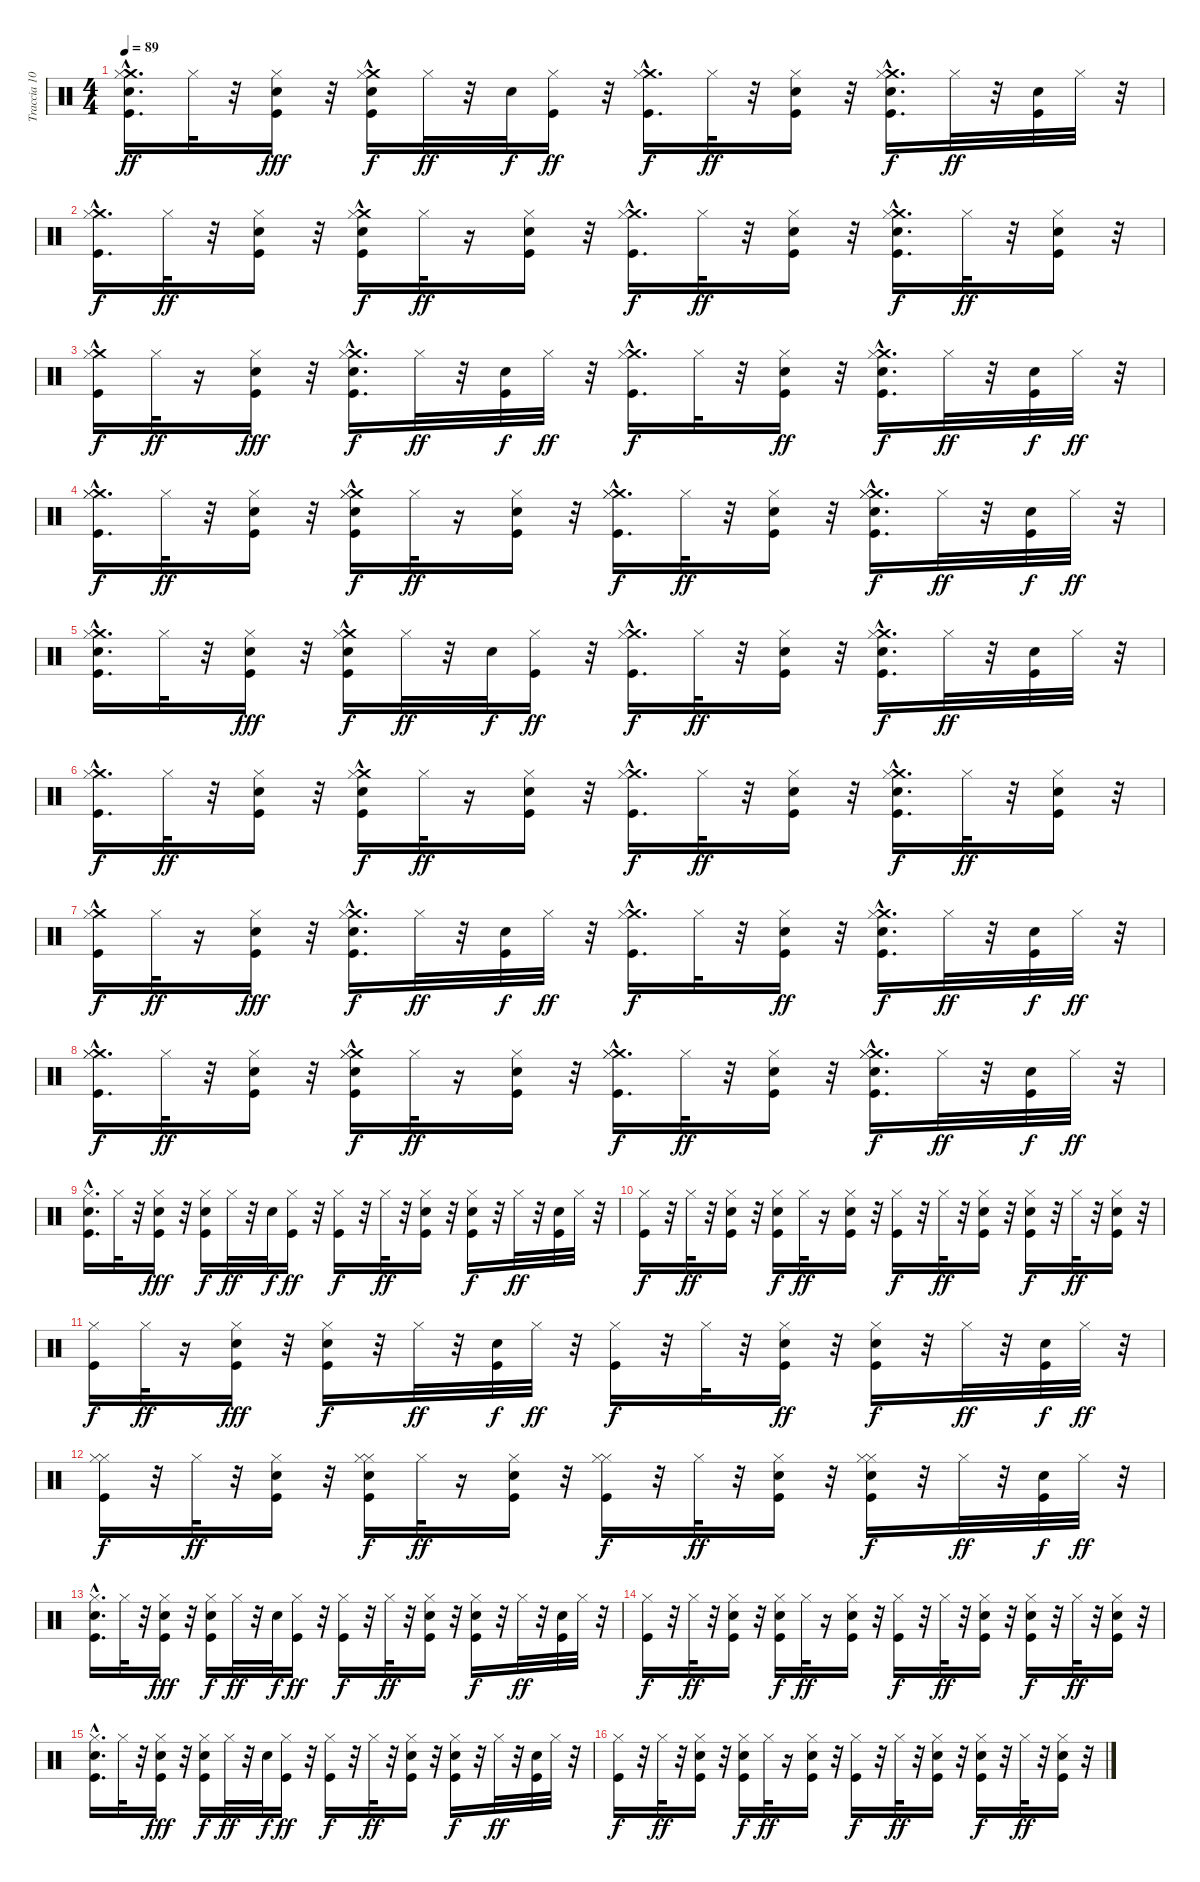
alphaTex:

\track ("Traccia 10" "Traccia 10") {instrument percussion}
\staff {score}
\articulation defaults
\ts (4 4)
\tempo 89
\clef neutral
\ks c
("Kick (hit)" "Crash medium (hit)"{hac} "Hi-Hat (closed)" "Snare (hit)"{hac}).16{d dy ff} "Hi-Hat (closed)".32 r.32 ("Kick (hit)" "Hi-Hat (closed)" "Snare (hit)").16{dy fff} r.32 ("Kick (hit)" "Crash medium (hit)"{hac} "Electric Snare (hit)" "Hi-Hat (closed)").16{dy f} "Hi-Hat (closed)".32{dy ff} r.32 "Snare (hit)".32{dy f} ("Kick (hit)" "Hi-Hat (closed)").16{dy ff} r.32 ("Kick (hit)" "Crash medium (hit)"{hac} "Hi-Hat (closed)").16{d dy f} "Hi-Hat (closed)".32{dy ff} r.32 ("Kick (hit)" "Snare (hit)" "Hi-Hat (closed)").16 r.32 ("Kick (hit)" "Crash medium (hit)"{hac} "Electric Snare (hit)" "Hi-Hat (closed)").16{d dy f} "Hi-Hat (closed)".32{dy ff} r.32 ("Kick (hit)" "Snare (hit)").32 "Hi-Hat (closed)".32 r.32 |
("Kick (hit)" "Crash medium (hit)"{hac} "Hi-Hat (closed)").16{d dy f} "Hi-Hat (closed)".32{dy ff} r.32 ("Kick (hit)" "Snare (hit)" "Hi-Hat (closed)").16 r.32 ("Kick (hit)" "Crash medium (hit)"{hac} "Electric Snare (hit)" "Hi-Hat (closed)").16{dy f} "Hi-Hat (closed)".32{dy ff} r.16 ("Kick (hit)" "Hi-Hat (closed)" "Snare (hit)").16 r.32 ("Kick (hit)" "Crash medium (hit)"{hac} "Hi-Hat (closed)").16{d dy f} "Hi-Hat (closed)".32{dy ff} r.32 ("Snare (hit)" "Kick (hit)" "Hi-Hat (closed)").16 r.32 ("Kick (hit)" "Crash medium (hit)"{hac} "Electric Snare (hit)" "Hi-Hat (closed)").16{d dy f} "Hi-Hat (closed)".32{dy ff} r.32 ("Kick (hit)" "Snare (hit)" "Hi-Hat (closed)").16 r.32 |
("Kick (hit)" "Crash medium (hit)"{hac} "Hi-Hat (closed)").16{dy f} "Hi-Hat (closed)".32{dy ff} r.16 ("Kick (hit)" "Snare (hit)" "Hi-Hat (closed)").16{dy fff} r.32 ("Kick (hit)" "Crash medium (hit)"{hac} "Electric Snare (hit)" "Hi-Hat (closed)").16{d dy f} "Hi-Hat (closed)".32{dy ff} r.32 ("Kick (hit)" "Snare (hit)").32{dy f} "Hi-Hat (closed)".32{dy ff} r.32 ("Kick (hit)" "Crash medium (hit)"{hac} "Hi-Hat (closed)").16{d dy f} "Hi-Hat (closed)".32 r.32 ("Kick (hit)" "Snare (hit)" "Hi-Hat (closed)").16{dy ff} r.32 ("Kick (hit)" "Crash medium (hit)"{hac} "Electric Snare (hit)" "Hi-Hat (closed)").16{d dy f} "Hi-Hat (closed)".32{dy ff} r.32 ("Kick (hit)" "Snare (hit)").32{dy f} "Hi-Hat (closed)".32{dy ff} r.32 |
("Kick (hit)" "Crash medium (hit)"{hac} "Hi-Hat (closed)" "Hi-Hat (closed)").16{d dy f} "Hi-Hat (closed)".32{dy ff} r.32 ("Snare (hit)" "Kick (hit)" "Hi-Hat (closed)").16 r.32 ("Kick (hit)" "Crash medium (hit)"{hac} "Electric Snare (hit)" "Hi-Hat (closed)" "Hi-Hat (closed)").16{dy f} "Hi-Hat (closed)".32{dy ff} r.16 ("Snare (hit)" "Kick (hit)" "Hi-Hat (closed)").16 r.32 ("Kick (hit)" "Crash medium (hit)"{hac} "Hi-Hat (closed)" "Hi-Hat (closed)").16{d dy f} "Hi-Hat (closed)".32{dy ff} r.32 ("Snare (hit)" "Kick (hit)" "Hi-Hat (closed)").16 r.32 ("Kick (hit)" "Crash medium (hit)"{hac} "Electric Snare (hit)" "Hi-Hat (closed)" "Hi-Hat (closed)").16{d dy f} "Hi-Hat (closed)".32{dy ff} r.32 ("Kick (hit)" "Snare (hit)").32{dy f} "Hi-Hat (closed)".32{dy ff} r.32 |
("Kick (hit)" "Crash medium (hit)"{hac} "Hi-Hat (closed)" "Snare (hit)"{hac}).16{d} "Hi-Hat (closed)".32 r.32 ("Kick (hit)" "Hi-Hat (closed)" "Snare (hit)").16{dy fff} r.32 ("Kick (hit)" "Crash medium (hit)"{hac} "Electric Snare (hit)" "Hi-Hat (closed)").16{dy f} "Hi-Hat (closed)".32{dy ff} r.32 "Snare (hit)".32{dy f} ("Kick (hit)" "Hi-Hat (closed)").16{dy ff} r.32 ("Kick (hit)" "Crash medium (hit)"{hac} "Hi-Hat (closed)").16{d dy f} "Hi-Hat (closed)".32{dy ff} r.32 ("Kick (hit)" "Snare (hit)" "Hi-Hat (closed)").16 r.32 ("Kick (hit)" "Crash medium (hit)"{hac} "Electric Snare (hit)" "Hi-Hat (closed)").16{d dy f} "Hi-Hat (closed)".32{dy ff} r.32 ("Kick (hit)" "Snare (hit)").32 "Hi-Hat (closed)".32 r.32 |
("Kick (hit)" "Crash medium (hit)"{hac} "Hi-Hat (closed)").16{d dy f} "Hi-Hat (closed)".32{dy ff} r.32 ("Kick (hit)" "Snare (hit)" "Hi-Hat (closed)").16 r.32 ("Kick (hit)" "Crash medium (hit)"{hac} "Electric Snare (hit)" "Hi-Hat (closed)").16{dy f} "Hi-Hat (closed)".32{dy ff} r.16 ("Kick (hit)" "Hi-Hat (closed)" "Snare (hit)").16 r.32 ("Kick (hit)" "Crash medium (hit)"{hac} "Hi-Hat (closed)").16{d dy f} "Hi-Hat (closed)".32{dy ff} r.32 ("Snare (hit)" "Kick (hit)" "Hi-Hat (closed)").16 r.32 ("Kick (hit)" "Crash medium (hit)"{hac} "Electric Snare (hit)" "Hi-Hat (closed)").16{d dy f} "Hi-Hat (closed)".32{dy ff} r.32 ("Kick (hit)" "Snare (hit)" "Hi-Hat (closed)").16 r.32 |
("Kick (hit)" "Crash medium (hit)"{hac} "Hi-Hat (closed)").16{dy f} "Hi-Hat (closed)".32{dy ff} r.16 ("Kick (hit)" "Snare (hit)" "Hi-Hat (closed)").16{dy fff} r.32 ("Kick (hit)" "Crash medium (hit)"{hac} "Electric Snare (hit)" "Hi-Hat (closed)").16{d dy f} "Hi-Hat (closed)".32{dy ff} r.32 ("Kick (hit)" "Snare (hit)").32{dy f} "Hi-Hat (closed)".32{dy ff} r.32 ("Kick (hit)" "Crash medium (hit)"{hac} "Hi-Hat (closed)").16{d dy f} "Hi-Hat (closed)".32 r.32 ("Kick (hit)" "Snare (hit)" "Hi-Hat (closed)").16{dy ff} r.32 ("Kick (hit)" "Crash medium (hit)"{hac} "Electric Snare (hit)" "Hi-Hat (closed)").16{d dy f} "Hi-Hat (closed)".32{dy ff} r.32 ("Kick (hit)" "Snare (hit)").32{dy f} "Hi-Hat (closed)".32{dy ff} r.32 |
("Kick (hit)" "Crash medium (hit)"{hac} "Hi-Hat (closed)" "Hi-Hat (closed)").16{d dy f} "Hi-Hat (closed)".32{dy ff} r.32 ("Snare (hit)" "Kick (hit)" "Hi-Hat (closed)").16 r.32 ("Kick (hit)" "Crash medium (hit)"{hac} "Electric Snare (hit)" "Hi-Hat (closed)" "Hi-Hat (closed)").16{dy f} "Hi-Hat (closed)".32{dy ff} r.16 ("Snare (hit)" "Kick (hit)" "Hi-Hat (closed)").16 r.32 ("Kick (hit)" "Crash medium (hit)"{hac} "Hi-Hat (closed)" "Hi-Hat (closed)").16{d dy f} "Hi-Hat (closed)".32{dy ff} r.32 ("Snare (hit)" "Kick (hit)" "Hi-Hat (closed)").16 r.32 ("Kick (hit)" "Crash medium (hit)"{hac} "Electric Snare (hit)" "Hi-Hat (closed)" "Hi-Hat (closed)").16{d dy f} "Hi-Hat (closed)".32{dy ff} r.32 ("Kick (hit)" "Snare (hit)").32{dy f} "Hi-Hat (closed)".32{dy ff} r.32 |
("Kick (hit)" "Hi-Hat (closed)" "Snare (hit)"{hac}).16{d} "Hi-Hat (closed)".32 r.32 ("Kick (hit)" "Hi-Hat (closed)" "Snare (hit)").16{dy fff} r.32 ("Kick (hit)" "Electric Snare (hit)" "Hi-Hat (closed)").16{dy f} "Hi-Hat (closed)".32{dy ff} r.32 "Snare (hit)".32{dy f} ("Kick (hit)" "Hi-Hat (closed)").16{dy ff} r.32 ("Kick (hit)" "Hi-Hat (closed)").16{dy f} r.32 "Hi-Hat (closed)".32{dy ff} r.32 ("Kick (hit)" "Snare (hit)" "Hi-Hat (closed)").16 r.32 ("Kick (hit)" "Electric Snare (hit)" "Hi-Hat (closed)").16{dy f} r.32 "Hi-Hat (closed)".32{dy ff} r.32 ("Kick (hit)" "Snare (hit)").32 "Hi-Hat (closed)".32 r.32 |
("Kick (hit)" "Hi-Hat (closed)").16{dy f} r.32 "Hi-Hat (closed)".32{dy ff} r.32 ("Kick (hit)" "Snare (hit)" "Hi-Hat (closed)").16 r.32 ("Kick (hit)" "Electric Snare (hit)" "Hi-Hat (closed)").16{dy f} "Hi-Hat (closed)".32{dy ff} r.16 ("Kick (hit)" "Hi-Hat (closed)" "Snare (hit)").16 r.32 ("Kick (hit)" "Hi-Hat (closed)").16{dy f} r.32 "Hi-Hat (closed)".32{dy ff} r.32 ("Snare (hit)" "Kick (hit)" "Hi-Hat (closed)").16 r.32 ("Kick (hit)" "Electric Snare (hit)" "Hi-Hat (closed)").16{dy f} r.32 "Hi-Hat (closed)".32{dy ff} r.32 ("Kick (hit)" "Snare (hit)" "Hi-Hat (closed)").16 r.32 |
("Kick (hit)" "Hi-Hat (closed)").16{dy f} "Hi-Hat (closed)".32{dy ff} r.16 ("Kick (hit)" "Snare (hit)" "Hi-Hat (closed)").16{dy fff} r.32 ("Kick (hit)" "Electric Snare (hit)" "Hi-Hat (closed)").16{dy f} r.32 "Hi-Hat (closed)".32{dy ff} r.32 ("Kick (hit)" "Snare (hit)").32{dy f} "Hi-Hat (closed)".32{dy ff} r.32 ("Kick (hit)" "Hi-Hat (closed)").16{dy f} r.32 "Hi-Hat (closed)".32 r.32 ("Kick (hit)" "Snare (hit)" "Hi-Hat (closed)").16{dy ff} r.32 ("Kick (hit)" "Electric Snare (hit)" "Hi-Hat (closed)").16{dy f} r.32 "Hi-Hat (closed)".32{dy ff} r.32 ("Kick (hit)" "Snare (hit)").32{dy f} "Hi-Hat (closed)".32{dy ff} r.32 |
("Kick (hit)" "Hi-Hat (closed)" "Hi-Hat (closed)").16{dy f} r.32 "Hi-Hat (closed)".32{dy ff} r.32 ("Snare (hit)" "Kick (hit)" "Hi-Hat (closed)").16 r.32 ("Kick (hit)" "Electric Snare (hit)" "Hi-Hat (closed)" "Hi-Hat (closed)").16{dy f} "Hi-Hat (closed)".32{dy ff} r.16 ("Snare (hit)" "Kick (hit)" "Hi-Hat (closed)").16 r.32 ("Kick (hit)" "Hi-Hat (closed)" "Hi-Hat (closed)").16{dy f} r.32 "Hi-Hat (closed)".32{dy ff} r.32 ("Snare (hit)" "Kick (hit)" "Hi-Hat (closed)").16 r.32 ("Kick (hit)" "Electric Snare (hit)" "Hi-Hat (closed)" "Hi-Hat (closed)").16{dy f} r.32 "Hi-Hat (closed)".32{dy ff} r.32 ("Kick (hit)" "Snare (hit)").32{dy f} "Hi-Hat (closed)".32{dy ff} r.32 |
("Kick (hit)" "Hi-Hat (closed)" "Snare (hit)"{hac}).16{d} "Hi-Hat (closed)".32 r.32 ("Kick (hit)" "Hi-Hat (closed)" "Snare (hit)").16{dy fff} r.32 ("Kick (hit)" "Electric Snare (hit)" "Hi-Hat (closed)").16{dy f} "Hi-Hat (closed)".32{dy ff} r.32 "Snare (hit)".32{dy f} ("Kick (hit)" "Hi-Hat (closed)").16{dy ff} r.32 ("Kick (hit)" "Hi-Hat (closed)").16{dy f} r.32 "Hi-Hat (closed)".32{dy ff} r.32 ("Kick (hit)" "Snare (hit)" "Hi-Hat (closed)").16 r.32 ("Kick (hit)" "Electric Snare (hit)" "Hi-Hat (closed)").16{dy f} r.32 "Hi-Hat (closed)".32{dy ff} r.32 ("Kick (hit)" "Snare (hit)").32 "Hi-Hat (closed)".32 r.32 |
("Kick (hit)" "Hi-Hat (closed)").16{dy f} r.32 "Hi-Hat (closed)".32{dy ff} r.32 ("Kick (hit)" "Snare (hit)" "Hi-Hat (closed)").16 r.32 ("Kick (hit)" "Electric Snare (hit)" "Hi-Hat (closed)").16{dy f} "Hi-Hat (closed)".32{dy ff} r.16 ("Kick (hit)" "Hi-Hat (closed)" "Snare (hit)").16 r.32 ("Kick (hit)" "Hi-Hat (closed)").16{dy f} r.32 "Hi-Hat (closed)".32{dy ff} r.32 ("Snare (hit)" "Kick (hit)" "Hi-Hat (closed)").16 r.32 ("Kick (hit)" "Electric Snare (hit)" "Hi-Hat (closed)").16{dy f} r.32 "Hi-Hat (closed)".32{dy ff} r.32 ("Kick (hit)" "Snare (hit)" "Hi-Hat (closed)").16 r.32 |
("Kick (hit)" "Hi-Hat (closed)" "Snare (hit)"{hac}).16{d} "Hi-Hat (closed)".32 r.32 ("Kick (hit)" "Hi-Hat (closed)" "Snare (hit)").16{dy fff} r.32 ("Kick (hit)" "Electric Snare (hit)" "Hi-Hat (closed)").16{dy f} "Hi-Hat (closed)".32{dy ff} r.32 "Snare (hit)".32{dy f} ("Kick (hit)" "Hi-Hat (closed)").16{dy ff} r.32 ("Kick (hit)" "Hi-Hat (closed)").16{dy f} r.32 "Hi-Hat (closed)".32{dy ff} r.32 ("Kick (hit)" "Snare (hit)" "Hi-Hat (closed)").16 r.32 ("Kick (hit)" "Electric Snare (hit)" "Hi-Hat (closed)").16{dy f} r.32 "Hi-Hat (closed)".32{dy ff} r.32 ("Kick (hit)" "Snare (hit)").32 "Hi-Hat (closed)".32 r.32 |
("Kick (hit)" "Hi-Hat (closed)").16{dy f} r.32 "Hi-Hat (closed)".32{dy ff} r.32 ("Kick (hit)" "Snare (hit)" "Hi-Hat (closed)").16 r.32 ("Kick (hit)" "Electric Snare (hit)" "Hi-Hat (closed)").16{dy f} "Hi-Hat (closed)".32{dy ff} r.16 ("Kick (hit)" "Hi-Hat (closed)" "Snare (hit)").16 r.32 ("Kick (hit)" "Hi-Hat (closed)").16{dy f} r.32 "Hi-Hat (closed)".32{dy ff} r.32 ("Snare (hit)" "Kick (hit)" "Hi-Hat (closed)").16 r.32 ("Kick (hit)" "Electric Snare (hit)" "Hi-Hat (closed)").16{dy f} r.32 "Hi-Hat (closed)".32{dy ff} r.32 ("Kick (hit)" "Snare (hit)" "Hi-Hat (closed)").16 r.32
